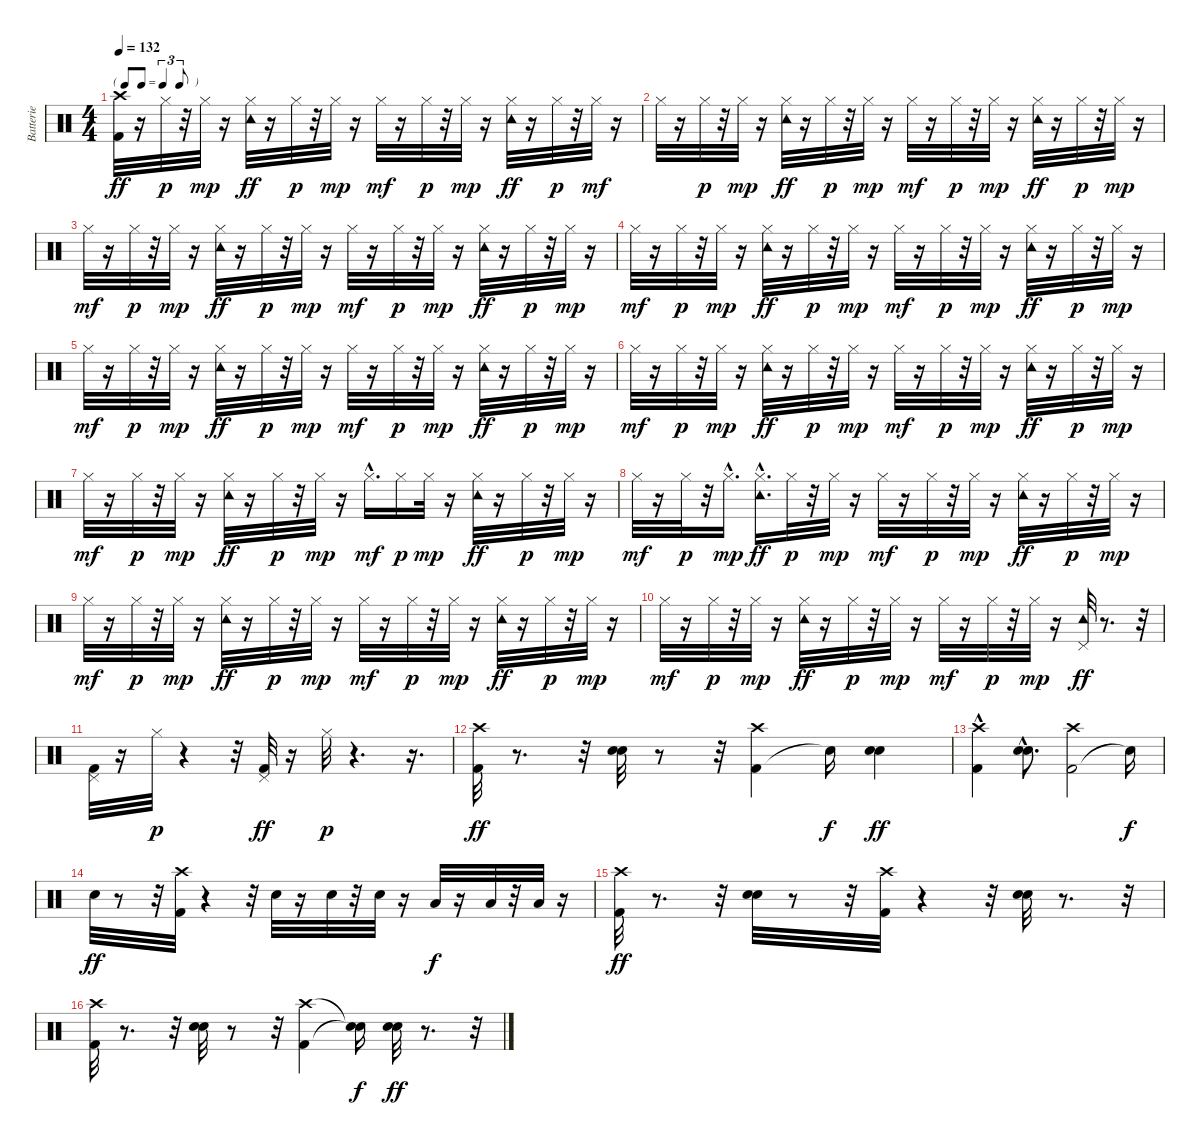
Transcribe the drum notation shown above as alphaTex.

\track ("Batterie" "Batterie") {instrument percussion}
\staff {score}
\articulation defaults
\ts (4 4)
\tf triplet8th
\tempo 132
\clef neutral
\ks c
("Kick (hit) 2" "Crash high (hit)").32{dy ff} r.16 "Hi-Hat (closed)".32{dy p} r.32 "Hi-Hat (closed)".32{dy mp} r.16 ("Hi-Hat (closed)" "Tambourine (hit)").32{dy ff} r.16 "Hi-Hat (closed)".32{dy p} r.32 "Hi-Hat (closed)".32{dy mp} r.16 "Hi-Hat (closed)".32{dy mf} r.16 "Hi-Hat (closed)".32{dy p} r.32 "Hi-Hat (closed)".32{dy mp} r.16 ("Hi-Hat (closed)" "Tambourine (hit)").32{dy ff} r.16 "Hi-Hat (closed)".32{dy p} r.32 "Hi-Hat (closed)".32{dy mf} r.16 |
"Hi-Hat (closed)".32 r.16 "Hi-Hat (closed)".32{dy p} r.32 "Hi-Hat (closed)".32{dy mp} r.16 ("Hi-Hat (closed)" "Tambourine (hit)").32{dy ff} r.16 "Hi-Hat (closed)".32{dy p} r.32 "Hi-Hat (closed)".32{dy mp} r.16 "Hi-Hat (closed)".32{dy mf} r.16 "Hi-Hat (closed)".32{dy p} r.32 "Hi-Hat (closed)".32{dy mp} r.16 ("Hi-Hat (closed)" "Tambourine (hit)").32{dy ff} r.16 "Hi-Hat (closed)".32{dy p} r.32 "Hi-Hat (closed)".32{dy mp} r.16 |
"Hi-Hat (closed)".32{dy mf} r.16 "Hi-Hat (closed)".32{dy p} r.32 "Hi-Hat (closed)".32{dy mp} r.16 ("Hi-Hat (closed)" "Tambourine (hit)").32{dy ff} r.16 "Hi-Hat (closed)".32{dy p} r.32 "Hi-Hat (closed)".32{dy mp} r.16 "Hi-Hat (closed)".32{dy mf} r.16 "Hi-Hat (closed)".32{dy p} r.32 "Hi-Hat (closed)".32{dy mp} r.16 ("Hi-Hat (closed)" "Tambourine (hit)").32{dy ff} r.16 "Hi-Hat (closed)".32{dy p} r.32 "Hi-Hat (closed)".32{dy mp} r.16 |
"Hi-Hat (closed)".32{dy mf} r.16 "Hi-Hat (closed)".32{dy p} r.32 "Hi-Hat (closed)".32{dy mp} r.16 ("Hi-Hat (closed)" "Tambourine (hit)").32{dy ff} r.16 "Hi-Hat (closed)".32{dy p} r.32 "Hi-Hat (closed)".32{dy mp} r.16 "Hi-Hat (closed)".32{dy mf} r.16 "Hi-Hat (closed)".32{dy p} r.32 "Hi-Hat (closed)".32{dy mp} r.16 ("Hi-Hat (closed)" "Tambourine (hit)").32{dy ff} r.16 "Hi-Hat (closed)".32{dy p} r.32 "Hi-Hat (closed)".32{dy mp} r.16 |
"Hi-Hat (closed)".32{dy mf} r.16 "Hi-Hat (closed)".32{dy p} r.32 "Hi-Hat (closed)".32{dy mp} r.16 ("Hi-Hat (closed)" "Tambourine (hit)").32{dy ff} r.16 "Hi-Hat (closed)".32{dy p} r.32 "Hi-Hat (closed)".32{dy mp} r.16 "Hi-Hat (closed)".32{dy mf} r.16 "Hi-Hat (closed)".32{dy p} r.32 "Hi-Hat (closed)".32{dy mp} r.16 ("Hi-Hat (closed)" "Tambourine (hit)").32{dy ff} r.16 "Hi-Hat (closed)".32{dy p} r.32 "Hi-Hat (closed)".32{dy mp} r.16 |
"Hi-Hat (closed)".32{dy mf} r.16 "Hi-Hat (closed)".32{dy p} r.32 "Hi-Hat (closed)".32{dy mp} r.16 ("Hi-Hat (closed)" "Tambourine (hit)").32{dy ff} r.16 "Hi-Hat (closed)".32{dy p} r.32 "Hi-Hat (closed)".32{dy mp} r.16 "Hi-Hat (closed)".32{dy mf} r.16 "Hi-Hat (closed)".32{dy p} r.32 "Hi-Hat (closed)".32{dy mp} r.16 ("Hi-Hat (closed)" "Tambourine (hit)").32{dy ff} r.16 "Hi-Hat (closed)".32{dy p} r.32 "Hi-Hat (closed)".32{dy mp} r.16 |
"Hi-Hat (closed)".32{dy mf} r.16 "Hi-Hat (closed)".32{dy p} r.32 "Hi-Hat (closed)".32{dy mp} r.16 ("Hi-Hat (closed)" "Tambourine (hit)").32{dy ff} r.16 "Hi-Hat (closed)".32{dy p} r.32 "Hi-Hat (closed)".32{dy mp} r.16 "Hi-Hat (closed)"{hac}.16{d dy mf} "Hi-Hat (closed)".16{dy p} "Hi-Hat (closed)".32{dy mp} r.16 ("Hi-Hat (closed)" "Tambourine (hit)").32{dy ff} r.16 "Hi-Hat (closed)".32{dy p} r.32 "Hi-Hat (closed)".32{dy mp} r.16 |
"Hi-Hat (closed)".32{dy mf} r.16 "Hi-Hat (closed)".32{dy p} r.32 "Hi-Hat (closed)"{hac}.16{d dy mp} ("Hi-Hat (closed)"{hac} "Tambourine (hit)").16{d dy ff} "Hi-Hat (closed)".32{dy p} r.32 "Hi-Hat (closed)".32{dy mp} r.16 "Hi-Hat (closed)".32{dy mf} r.16 "Hi-Hat (closed)".32{dy p} r.32 "Hi-Hat (closed)".32{dy mp} r.16 ("Hi-Hat (closed)" "Tambourine (hit)").32{dy ff} r.16 "Hi-Hat (closed)".32{dy p} r.32 "Hi-Hat (closed)".32{dy mp} r.16 |
"Hi-Hat (closed)".32{dy mf} r.16 "Hi-Hat (closed)".32{dy p} r.32 "Hi-Hat (closed)".32{dy mp} r.16 ("Hi-Hat (closed)" "Tambourine (hit)").32{dy ff} r.16 "Hi-Hat (closed)".32{dy p} r.32 "Hi-Hat (closed)".32{dy mp} r.16 "Hi-Hat (closed)".32{dy mf} r.16 "Hi-Hat (closed)".32{dy p} r.32 "Hi-Hat (closed)".32{dy mp} r.16 ("Hi-Hat (closed)" "Tambourine (hit)").32{dy ff} r.16 "Hi-Hat (closed)".32{dy p} r.32 "Hi-Hat (closed)".32{dy mp} r.16 |
"Hi-Hat (closed)".32{dy mf} r.16 "Hi-Hat (closed)".32{dy p} r.32 "Hi-Hat (closed)".32{dy mp} r.16 ("Hi-Hat (closed)" "Tambourine (hit)").32{dy ff} r.16 "Hi-Hat (closed)".32{dy p} r.32 "Hi-Hat (closed)".32{dy mp} r.16 "Hi-Hat (closed)".32{dy mf} r.16 "Hi-Hat (closed)".32{dy p} r.32 "Hi-Hat (closed)".32{dy mp} r.16 ("Pedal Hi-Hat (hit)" "Tambourine (hit)").32{dy ff} r.8{d} r.32 |
("Kick (hit) 2" "Pedal Hi-Hat (hit)").32 r.16 "Hi-Hat (closed)".32{dy p} r.4 r.32 ("Kick (hit) 2" "Pedal Hi-Hat (hit)").32{dy ff} r.16 "Hi-Hat (closed)".32{dy p} r.4{d} r.16{d} |
("Kick (hit) 2" "Crash high (hit)").32{dy ff} r.8{d} r.32 ("Snare (hit) 2" "Snare (hit) 2").32 r.8 r.32 ("Kick (hit) 2" "Crash high (hit)").4 "Snare (hit)"{t}.16{dy f} ("Snare (hit) 2" "Snare (hit) 2").4{dy ff} |
("Kick (hit) 2"{hac} "Crash high (hit)").4 ("Snare (hit) 2" "Snare (hit) 2"{hac}).8{d} ("Kick (hit) 2" "Crash high (hit)").2 "Snare (hit)"{t}.16{dy f} |
"Snare (hit) 2".32{dy ff} r.8 r.32 ("Kick (hit) 2" "Crash high (hit)").32 r.4 r.32 "Snare (hit) 2".32 r.16 "Snare (hit) 2".32 r.32 "Snare (hit) 2".32 r.16 "Low Tom (hit)".32{dy f} r.16 "Low Tom (hit)".32 r.32 "Low Tom (hit)".32 r.16 |
("Kick (hit) 2" "Crash high (hit)").32{dy ff} r.8{d} r.32 ("Snare (hit) 2" "Snare (hit) 2").32 r.8 r.32 ("Kick (hit) 2" "Crash high (hit)").32 r.4 r.32 ("Snare (hit) 2" "Snare (hit) 2").32 r.8{d} r.32 |
("Kick (hit) 2" "Crash high (hit)").32 r.8{d} r.32 ("Snare (hit) 2" "Snare (hit) 2").32 r.8 r.32 ("Kick (hit) 2" "Crash high (hit)").4 ("Snare (hit)"{t} "Snare (hit)"{t}).16{dy f} ("Snare (hit) 2" "Snare (hit) 2").32{dy ff} r.8{d} r.32
